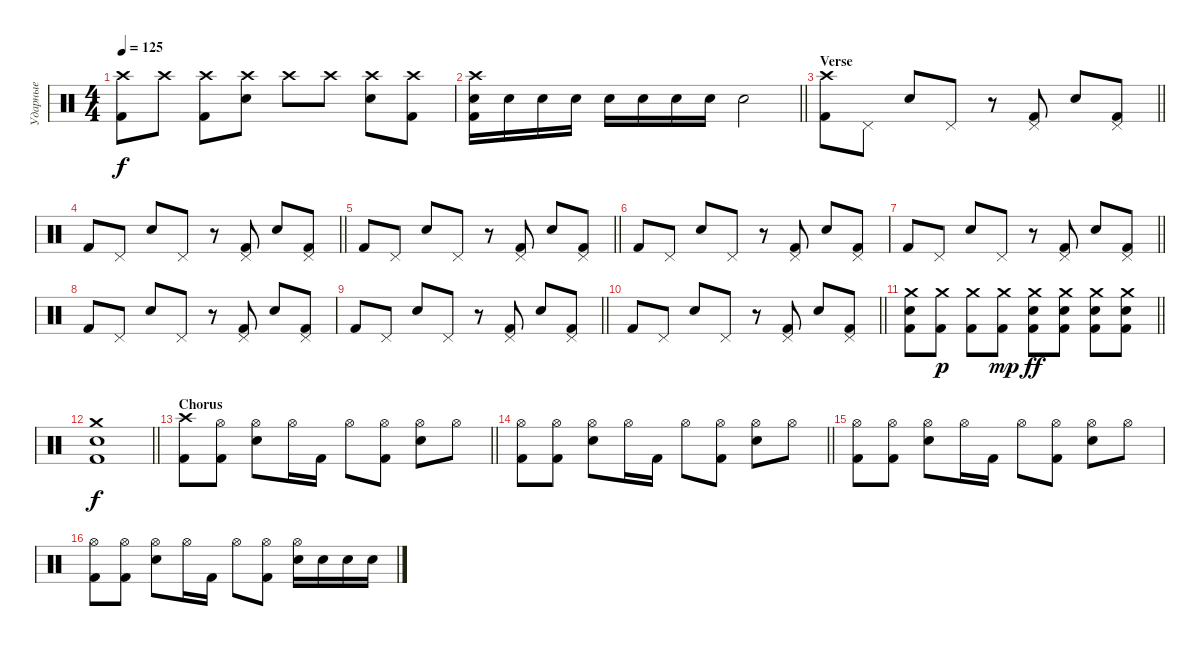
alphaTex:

\track ("Ударные" "Ударные") {instrument percussion}
\staff {score}
\articulation defaults
\ts (4 4)
\tempo 125
\clef neutral
\ks c
("Crash high (hit)" "Kick (hit) 2").8{dy f} "Crash high (hit)".8 ("Crash high (hit)" "Kick (hit) 2").8 ("Crash high (hit)" "Electric Snare (hit)").8 "Crash high (hit)".8 "Crash high (hit)".8 ("Crash high (hit)" "Electric Snare (hit)").8 ("Crash high (hit)" "Kick (hit) 2").8 |
\barLineRight lightlight
("Crash high (hit)" "Electric Snare (hit)" "Kick (hit) 2").16 "Electric Snare (hit)".16 "Electric Snare (hit)".16 "Electric Snare (hit)".16 "Electric Snare (hit)".16 "Electric Snare (hit)".16 "Electric Snare (hit)".16 "Electric Snare (hit)".16 "Electric Snare (hit)".2 |
\section ("" "Verse")
\barLineRight lightlight
("Crash high (hit)" "Kick (hit) 2").8 "Pedal Hi-Hat (hit)".8 "Electric Snare (hit)".8 "Pedal Hi-Hat (hit)".8 r.8 ("Pedal Hi-Hat (hit)" "Kick (hit) 2").8 "Electric Snare (hit)".8 ("Pedal Hi-Hat (hit)" "Kick (hit) 2").8 |
\barLineRight lightlight "Kick (hit) 2".8 "Pedal Hi-Hat (hit)".8 "Electric Snare (hit)".8 "Pedal Hi-Hat (hit)".8
r.8 ("Pedal Hi-Hat (hit)" "Kick (hit) 2").8 "Electric Snare (hit)".8 ("Pedal Hi-Hat (hit)" "Kick (hit) 2").8 |
\barLineRight lightlight "Kick (hit) 2".8 "Pedal Hi-Hat (hit)".8 "Electric Snare (hit)".8 "Pedal Hi-Hat (hit)".8
r.8 ("Pedal Hi-Hat (hit)" "Kick (hit) 2").8 "Electric Snare (hit)".8 ("Pedal Hi-Hat (hit)" "Kick (hit) 2").8 |
"Kick (hit) 2".8 "Pedal Hi-Hat (hit)".8 "Electric Snare (hit)".8 "Pedal Hi-Hat (hit)".8 r.8 ("Pedal Hi-Hat (hit)" "Kick (hit) 2").8 "Electric Snare (hit)".8 ("Pedal Hi-Hat (hit)" "Kick (hit) 2").8 |
\barLineRight lightlight "Kick (hit) 2".8 "Pedal Hi-Hat (hit)".8 "Electric Snare (hit)".8 "Pedal Hi-Hat (hit)".8
r.8 ("Pedal Hi-Hat (hit)" "Kick (hit) 2").8 "Electric Snare (hit)".8 ("Pedal Hi-Hat (hit)" "Kick (hit) 2").8 |
"Kick (hit) 2".8 "Pedal Hi-Hat (hit)".8 "Electric Snare (hit)".8 "Pedal Hi-Hat (hit)".8 r.8 ("Pedal Hi-Hat (hit)" "Kick (hit) 2").8 "Electric Snare (hit)".8 ("Pedal Hi-Hat (hit)" "Kick (hit) 2").8 |
\barLineRight lightlight "Kick (hit) 2".8 "Pedal Hi-Hat (hit)".8 "Electric Snare (hit)".8 "Pedal Hi-Hat (hit)".8
r.8 ("Pedal Hi-Hat (hit)" "Kick (hit) 2").8 "Electric Snare (hit)".8 ("Pedal Hi-Hat (hit)" "Kick (hit) 2").8 |
\barLineRight lightlight "Kick (hit) 2".8 "Pedal Hi-Hat (hit)".8 "Electric Snare (hit)".8 "Pedal Hi-Hat (hit)".8
r.8 ("Pedal Hi-Hat (hit)" "Kick (hit) 2").8 "Electric Snare (hit)".8 ("Pedal Hi-Hat (hit)" "Kick (hit) 2").8 |
\barLineRight lightlight
("Crash medium (hit)" "Electric Snare (hit)" "Kick (hit) 2").8 ("Crash medium (hit)" "Kick (hit) 2").8{dy p} ("Crash medium (hit)" "Kick (hit) 2").8 ("Crash medium (hit)" "Kick (hit) 2").8{dy mp} ("Crash medium (hit)" "Electric Snare (hit)" "Kick (hit) 2").8{dy ff} ("Crash medium (hit)" "Electric Snare (hit)" "Kick (hit) 2").8 ("Crash medium (hit)" "Electric Snare (hit)" "Kick (hit) 2").8 ("Crash medium (hit)" "Electric Snare (hit)" "Kick (hit) 2").8 |
\barLineRight lightlight
("Crash medium (hit)" "Electric Snare (hit)" "Kick (hit) 2").1{dy f} |
\section ("" "Chorus")
\barLineRight lightlight
("Crash high (hit)" "Kick (hit) 2").8 ("Hi-Hat (open)" "Kick (hit) 2").8 ("Hi-Hat (open)" "Electric Snare (hit)").8 "Hi-Hat (open)".16 "Kick (hit) 2".16 "Hi-Hat (open)".8 ("Hi-Hat (open)" "Kick (hit) 2").8 ("Hi-Hat (open)" "Electric Snare (hit)").8 "Hi-Hat (open)".8 |
\barLineRight lightlight
("Hi-Hat (open)" "Kick (hit) 2").8 ("Hi-Hat (open)" "Kick (hit) 2").8 ("Hi-Hat (open)" "Electric Snare (hit)").8 "Hi-Hat (open)".16 "Kick (hit) 2".16 "Hi-Hat (open)".8 ("Hi-Hat (open)" "Kick (hit) 2").8 ("Hi-Hat (open)" "Electric Snare (hit)").8 "Hi-Hat (open)".8 |
("Hi-Hat (open)" "Kick (hit) 2").8 ("Hi-Hat (open)" "Kick (hit) 2").8 ("Hi-Hat (open)" "Electric Snare (hit)").8 "Hi-Hat (open)".16 "Kick (hit) 2".16 "Hi-Hat (open)".8 ("Hi-Hat (open)" "Kick (hit) 2").8 ("Hi-Hat (open)" "Electric Snare (hit)").8 "Hi-Hat (open)".8 |
("Hi-Hat (open)" "Kick (hit) 2").8 ("Hi-Hat (open)" "Kick (hit) 2").8 ("Hi-Hat (open)" "Electric Snare (hit)").8 "Hi-Hat (open)".16 "Kick (hit) 2".16 "Hi-Hat (open)".8 ("Hi-Hat (open)" "Kick (hit) 2").8 ("Hi-Hat (open)" "Electric Snare (hit)").16 "Electric Snare (hit)".16 "Electric Snare (hit)".16 "Electric Snare (hit)".16
